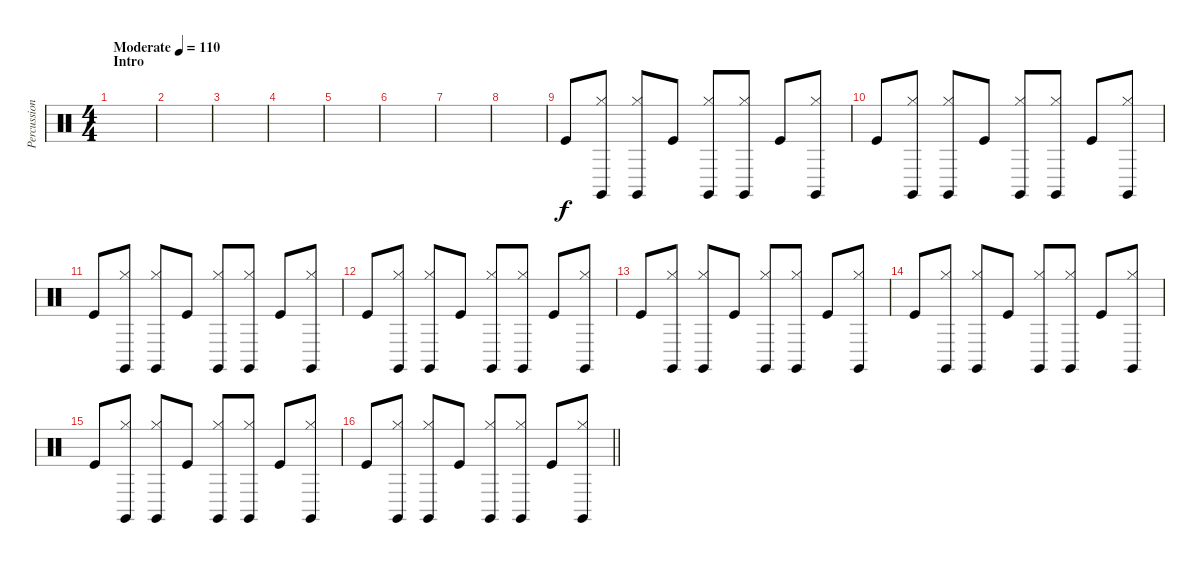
\track ("Percussion" "Percussion") {instrument percussion}
\staff {score}
\articulation defaults
\ts (4 4)
\section ("" "Intro")
\tempo (110 "Moderate")
\clef neutral
\ks c
|
|
|
|
|
|
|
|
"Kick (hit)".8 ("Claves (hit)" "Hi-Hat (closed)").8 ("Claves (hit)" "Hi-Hat (closed)").8 "Kick (hit)".8 ("Claves (hit)" "Hi-Hat (closed)").8 ("Claves (hit)" "Hi-Hat (closed)").8 "Kick (hit)".8 ("Claves (hit)" "Hi-Hat (closed)").8 |
"Kick (hit)".8 ("Claves (hit)" "Hi-Hat (closed)").8 ("Claves (hit)" "Hi-Hat (closed)").8 "Kick (hit)".8 ("Claves (hit)" "Hi-Hat (closed)").8 ("Claves (hit)" "Hi-Hat (closed)").8 "Kick (hit)".8 ("Claves (hit)" "Hi-Hat (closed)").8 |
"Kick (hit)".8 ("Claves (hit)" "Hi-Hat (closed)").8 ("Claves (hit)" "Hi-Hat (closed)").8 "Kick (hit)".8 ("Claves (hit)" "Hi-Hat (closed)").8 ("Claves (hit)" "Hi-Hat (closed)").8 "Kick (hit)".8 ("Claves (hit)" "Hi-Hat (closed)").8 |
"Kick (hit)".8 ("Claves (hit)" "Hi-Hat (closed)").8 ("Claves (hit)" "Hi-Hat (closed)").8 "Kick (hit)".8 ("Claves (hit)" "Hi-Hat (closed)").8 ("Claves (hit)" "Hi-Hat (closed)").8 "Kick (hit)".8 ("Claves (hit)" "Hi-Hat (closed)").8 |
"Kick (hit)".8 ("Claves (hit)" "Hi-Hat (closed)").8 ("Claves (hit)" "Hi-Hat (closed)").8 "Kick (hit)".8 ("Claves (hit)" "Hi-Hat (closed)").8 ("Claves (hit)" "Hi-Hat (closed)").8 "Kick (hit)".8 ("Claves (hit)" "Hi-Hat (closed)").8 |
"Kick (hit)".8 ("Claves (hit)" "Hi-Hat (closed)").8 ("Claves (hit)" "Hi-Hat (closed)").8 "Kick (hit)".8 ("Claves (hit)" "Hi-Hat (closed)").8 ("Claves (hit)" "Hi-Hat (closed)").8 "Kick (hit)".8 ("Claves (hit)" "Hi-Hat (closed)").8 |
"Kick (hit)".8 ("Claves (hit)" "Hi-Hat (closed)").8 ("Claves (hit)" "Hi-Hat (closed)").8 "Kick (hit)".8 ("Claves (hit)" "Hi-Hat (closed)").8 ("Claves (hit)" "Hi-Hat (closed)").8 "Kick (hit)".8 ("Claves (hit)" "Hi-Hat (closed)").8 |
\barLineRight lightlight "Kick (hit)".8
("Claves (hit)" "Hi-Hat (closed)").8 ("Claves (hit)" "Hi-Hat (closed)").8 "Kick (hit)".8 ("Claves (hit)" "Hi-Hat (closed)").8 ("Claves (hit)" "Hi-Hat (closed)").8 "Kick (hit)".8 ("Claves (hit)" "Hi-Hat (closed)").8
